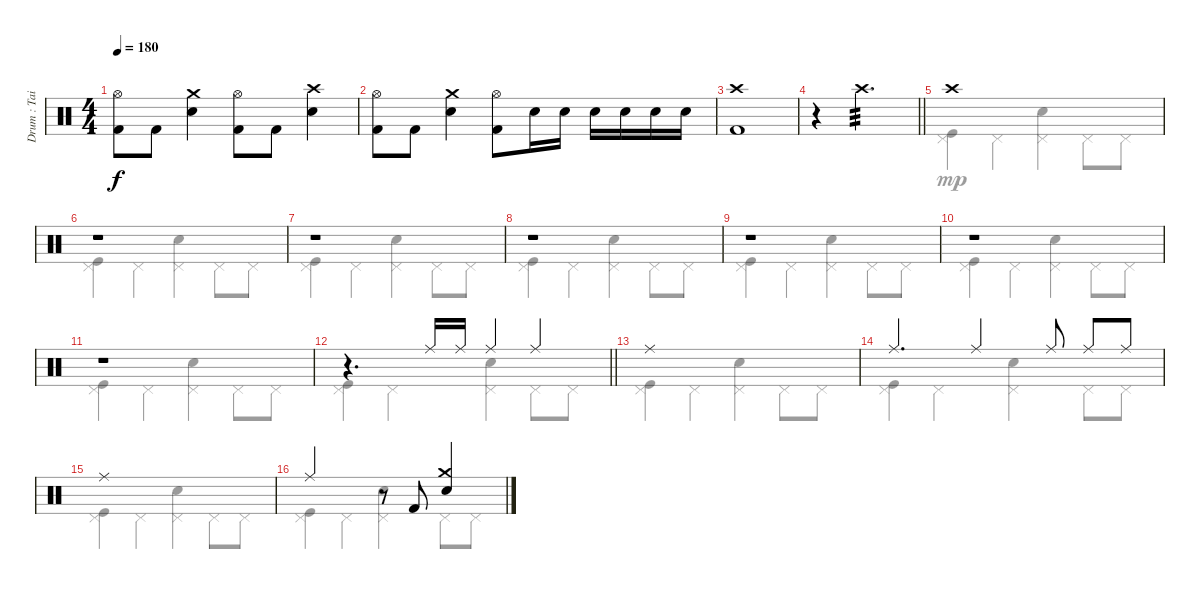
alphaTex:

\track ("Drum : Tainaka Ritsu - Chan" "Drum : Tai") {instrument percussion}
\staff {score}
\articulation defaults
\voice
\ts (4 4)
\tempo 180
\clef neutral
\ks c
("Hi-Hat (open)" "Kick (hit) 2").8{dy f} "Kick (hit) 2".8 ("Crash medium (hit)" "Electric Snare (hit)").4 ("Hi-Hat (open)" "Kick (hit) 2").8 "Kick (hit) 2".8 ("Crash high (hit)" "Electric Snare (hit)").4 |
("Hi-Hat (open)" "Kick (hit) 2").8 "Kick (hit) 2".8 ("Crash medium (hit)" "Electric Snare (hit)").4 ("Hi-Hat (open)" "Kick (hit) 2").8 "Electric Snare (hit)".16 "Electric Snare (hit)".16 "Electric Snare (hit)".16 "Electric Snare (hit)".16 "Electric Snare (hit)".16 "Electric Snare (hit)".16 |
("Crash high (hit)" "Kick (hit) 2").1 |
\barLineRight lightlight
r.4{volume 0} "Crash high (hit)".2{d tp 3 volume 16} |
"Crash high (hit)".1 |
r.1 |
r.1 |
r.1 |
r.1 |
r.1 |
r.1 |
\barLineRight lightlight
r.4{d} "Ride (middle)".16 "Ride (middle)".16 "Ride (middle)".4 "Ride (middle)".4 |
"Ride (middle)".1 |
"Ride (middle)".4{d} "Ride (middle)".4 "Ride (middle)".8 "Ride (middle)".8 "Ride (middle)".8 |
"Ride (middle)".1 |
"Ride (middle)".2 r.8 "Kick (hit) 2".8 ("Crash medium (hit)" "Electric Snare (hit)").4
\voice
\clef neutral
\ottava regular
\simile none
\ks c
|
|
|
\barLineRight lightlight
|
("Pedal Hi-Hat (hit)" "Kick (hit)").4{dy mp} "Pedal Hi-Hat (hit)".4 ("Pedal Hi-Hat (hit)" "Snare (hit) 2").4 "Pedal Hi-Hat (hit)".8 "Pedal Hi-Hat (hit)".8 |
("Pedal Hi-Hat (hit)" "Kick (hit)").4 "Pedal Hi-Hat (hit)".4 ("Pedal Hi-Hat (hit)" "Snare (hit) 2").4 "Pedal Hi-Hat (hit)".8 "Pedal Hi-Hat (hit)".8 |
("Pedal Hi-Hat (hit)" "Kick (hit)").4 "Pedal Hi-Hat (hit)".4 ("Pedal Hi-Hat (hit)" "Snare (hit) 2").4 "Pedal Hi-Hat (hit)".8 "Pedal Hi-Hat (hit)".8 |
("Pedal Hi-Hat (hit)" "Kick (hit)").4 "Pedal Hi-Hat (hit)".4 ("Pedal Hi-Hat (hit)" "Snare (hit) 2").4 "Pedal Hi-Hat (hit)".8 "Pedal Hi-Hat (hit)".8 |
("Pedal Hi-Hat (hit)" "Kick (hit)").4 "Pedal Hi-Hat (hit)".4 ("Pedal Hi-Hat (hit)" "Snare (hit) 2").4 "Pedal Hi-Hat (hit)".8 "Pedal Hi-Hat (hit)".8 |
("Pedal Hi-Hat (hit)" "Kick (hit)").4 "Pedal Hi-Hat (hit)".4 ("Pedal Hi-Hat (hit)" "Snare (hit) 2").4 "Pedal Hi-Hat (hit)".8 "Pedal Hi-Hat (hit)".8 |
("Pedal Hi-Hat (hit)" "Kick (hit)").4 "Pedal Hi-Hat (hit)".4 ("Pedal Hi-Hat (hit)" "Snare (hit) 2").4 "Pedal Hi-Hat (hit)".8 "Pedal Hi-Hat (hit)".8 |
\barLineRight lightlight
("Pedal Hi-Hat (hit)" "Kick (hit)").4 "Pedal Hi-Hat (hit)".4 ("Pedal Hi-Hat (hit)" "Snare (hit) 2").4 "Pedal Hi-Hat (hit)".8 "Pedal Hi-Hat (hit)".8 |
("Pedal Hi-Hat (hit)" "Kick (hit)").4 "Pedal Hi-Hat (hit)".4 ("Pedal Hi-Hat (hit)" "Snare (hit) 2").4 "Pedal Hi-Hat (hit)".8 "Pedal Hi-Hat (hit)".8 |
("Pedal Hi-Hat (hit)" "Kick (hit)").4 "Pedal Hi-Hat (hit)".4 ("Pedal Hi-Hat (hit)" "Snare (hit) 2").4 "Pedal Hi-Hat (hit)".8 "Pedal Hi-Hat (hit)".8 |
("Pedal Hi-Hat (hit)" "Kick (hit)").4 "Pedal Hi-Hat (hit)".4 ("Pedal Hi-Hat (hit)" "Snare (hit) 2").4 "Pedal Hi-Hat (hit)".8 "Pedal Hi-Hat (hit)".8 |
("Pedal Hi-Hat (hit)" "Kick (hit)").4 "Pedal Hi-Hat (hit)".4 ("Pedal Hi-Hat (hit)" "Snare (hit) 2").4 "Pedal Hi-Hat (hit)".8 "Pedal Hi-Hat (hit)".8
